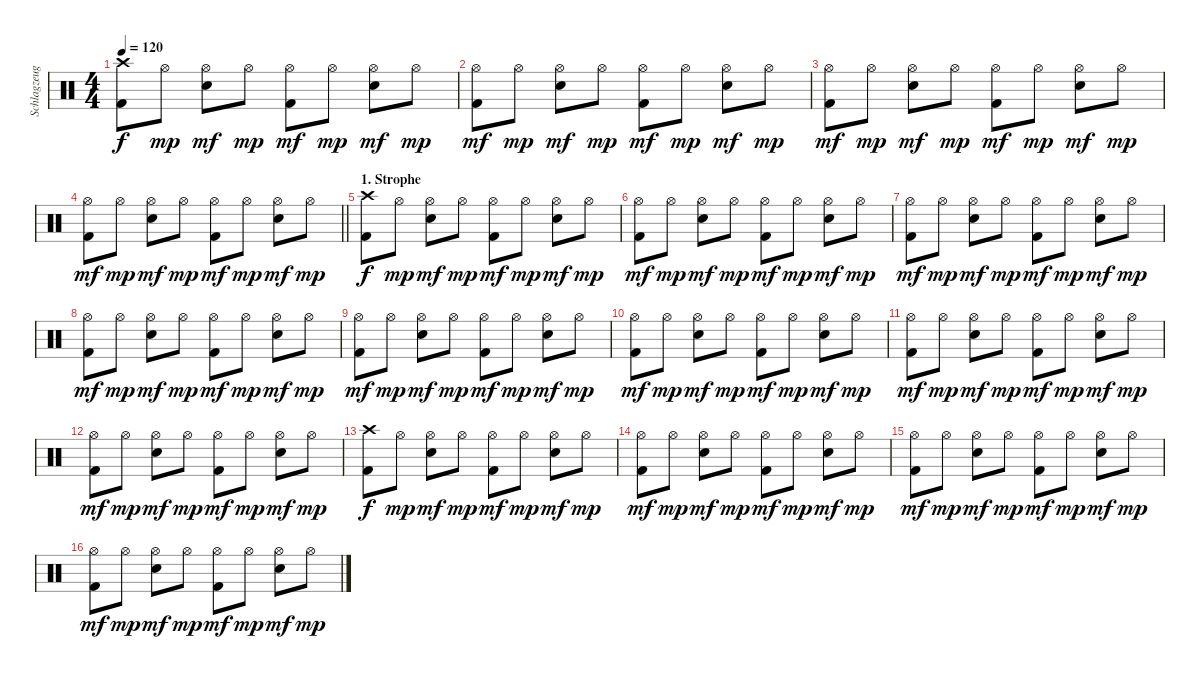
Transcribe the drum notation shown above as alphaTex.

\track ("Schlagzeug" "Schlagzeug") {instrument percussion}
\staff {score}
\articulation defaults
\ts (4 4)
\tempo 120
\clef neutral
\ks c
("Crash high (hit)" "Kick (hit) 2").8{dy f} "Hi-Hat (open)".8{dy mp} ("Hi-Hat (open)" "Electric Snare (hit)").8{dy mf} "Hi-Hat (open)".8{dy mp} ("Hi-Hat (open)" "Kick (hit) 2").8{dy mf} "Hi-Hat (open)".8{dy mp} ("Hi-Hat (open)" "Electric Snare (hit)").8{dy mf} "Hi-Hat (open)".8{dy mp} |
("Hi-Hat (open)" "Kick (hit) 2").8{dy mf} "Hi-Hat (open)".8{dy mp} ("Hi-Hat (open)" "Electric Snare (hit)").8{dy mf} "Hi-Hat (open)".8{dy mp} ("Hi-Hat (open)" "Kick (hit) 2").8{dy mf} "Hi-Hat (open)".8{dy mp} ("Hi-Hat (open)" "Electric Snare (hit)").8{dy mf} "Hi-Hat (open)".8{dy mp} |
("Hi-Hat (open)" "Kick (hit) 2").8{dy mf} "Hi-Hat (open)".8{dy mp} ("Hi-Hat (open)" "Electric Snare (hit)").8{dy mf} "Hi-Hat (open)".8{dy mp} ("Hi-Hat (open)" "Kick (hit) 2").8{dy mf} "Hi-Hat (open)".8{dy mp} ("Hi-Hat (open)" "Electric Snare (hit)").8{dy mf} "Hi-Hat (open)".8{dy mp} |
\barLineRight lightlight
("Hi-Hat (open)" "Kick (hit) 2").8{dy mf} "Hi-Hat (open)".8{dy mp} ("Hi-Hat (open)" "Electric Snare (hit)").8{dy mf} "Hi-Hat (open)".8{dy mp} ("Hi-Hat (open)" "Kick (hit) 2").8{dy mf} "Hi-Hat (open)".8{dy mp} ("Hi-Hat (open)" "Electric Snare (hit)").8{dy mf} "Hi-Hat (open)".8{dy mp} |
\section ("" "1. Strophe")
("Crash high (hit)" "Kick (hit) 2").8{dy f} "Hi-Hat (open)".8{dy mp} ("Hi-Hat (open)" "Electric Snare (hit)").8{dy mf} "Hi-Hat (open)".8{dy mp} ("Hi-Hat (open)" "Kick (hit) 2").8{dy mf} "Hi-Hat (open)".8{dy mp} ("Hi-Hat (open)" "Electric Snare (hit)").8{dy mf} "Hi-Hat (open)".8{dy mp} |
("Hi-Hat (open)" "Kick (hit) 2").8{dy mf} "Hi-Hat (open)".8{dy mp} ("Hi-Hat (open)" "Electric Snare (hit)").8{dy mf} "Hi-Hat (open)".8{dy mp} ("Hi-Hat (open)" "Kick (hit) 2").8{dy mf} "Hi-Hat (open)".8{dy mp} ("Hi-Hat (open)" "Electric Snare (hit)").8{dy mf} "Hi-Hat (open)".8{dy mp} |
("Hi-Hat (open)" "Kick (hit) 2").8{dy mf} "Hi-Hat (open)".8{dy mp} ("Hi-Hat (open)" "Electric Snare (hit)").8{dy mf} "Hi-Hat (open)".8{dy mp} ("Hi-Hat (open)" "Kick (hit) 2").8{dy mf} "Hi-Hat (open)".8{dy mp} ("Hi-Hat (open)" "Electric Snare (hit)").8{dy mf} "Hi-Hat (open)".8{dy mp} |
("Hi-Hat (open)" "Kick (hit) 2").8{dy mf} "Hi-Hat (open)".8{dy mp} ("Hi-Hat (open)" "Electric Snare (hit)").8{dy mf} "Hi-Hat (open)".8{dy mp} ("Hi-Hat (open)" "Kick (hit) 2").8{dy mf} "Hi-Hat (open)".8{dy mp} ("Hi-Hat (open)" "Electric Snare (hit)").8{dy mf} "Hi-Hat (open)".8{dy mp} |
("Hi-Hat (open)" "Kick (hit) 2").8{dy mf} "Hi-Hat (open)".8{dy mp} ("Hi-Hat (open)" "Electric Snare (hit)").8{dy mf} "Hi-Hat (open)".8{dy mp} ("Hi-Hat (open)" "Kick (hit) 2").8{dy mf} "Hi-Hat (open)".8{dy mp} ("Hi-Hat (open)" "Electric Snare (hit)").8{dy mf} "Hi-Hat (open)".8{dy mp} |
("Hi-Hat (open)" "Kick (hit) 2").8{dy mf} "Hi-Hat (open)".8{dy mp} ("Hi-Hat (open)" "Electric Snare (hit)").8{dy mf} "Hi-Hat (open)".8{dy mp} ("Hi-Hat (open)" "Kick (hit) 2").8{dy mf} "Hi-Hat (open)".8{dy mp} ("Hi-Hat (open)" "Electric Snare (hit)").8{dy mf} "Hi-Hat (open)".8{dy mp} |
("Hi-Hat (open)" "Kick (hit) 2").8{dy mf} "Hi-Hat (open)".8{dy mp} ("Hi-Hat (open)" "Electric Snare (hit)").8{dy mf} "Hi-Hat (open)".8{dy mp} ("Hi-Hat (open)" "Kick (hit) 2").8{dy mf} "Hi-Hat (open)".8{dy mp} ("Hi-Hat (open)" "Electric Snare (hit)").8{dy mf} "Hi-Hat (open)".8{dy mp} |
("Hi-Hat (open)" "Kick (hit) 2").8{dy mf} "Hi-Hat (open)".8{dy mp} ("Hi-Hat (open)" "Electric Snare (hit)").8{dy mf} "Hi-Hat (open)".8{dy mp} ("Hi-Hat (open)" "Kick (hit) 2").8{dy mf} "Hi-Hat (open)".8{dy mp} ("Hi-Hat (open)" "Electric Snare (hit)").8{dy mf} "Hi-Hat (open)".8{dy mp} |
("Crash high (hit)" "Kick (hit) 2").8{dy f} "Hi-Hat (open)".8{dy mp} ("Hi-Hat (open)" "Electric Snare (hit)").8{dy mf} "Hi-Hat (open)".8{dy mp} ("Hi-Hat (open)" "Kick (hit) 2").8{dy mf} "Hi-Hat (open)".8{dy mp} ("Hi-Hat (open)" "Electric Snare (hit)").8{dy mf} "Hi-Hat (open)".8{dy mp} |
("Hi-Hat (open)" "Kick (hit) 2").8{dy mf} "Hi-Hat (open)".8{dy mp} ("Hi-Hat (open)" "Electric Snare (hit)").8{dy mf} "Hi-Hat (open)".8{dy mp} ("Hi-Hat (open)" "Kick (hit) 2").8{dy mf} "Hi-Hat (open)".8{dy mp} ("Hi-Hat (open)" "Electric Snare (hit)").8{dy mf} "Hi-Hat (open)".8{dy mp} |
("Hi-Hat (open)" "Kick (hit) 2").8{dy mf} "Hi-Hat (open)".8{dy mp} ("Hi-Hat (open)" "Electric Snare (hit)").8{dy mf} "Hi-Hat (open)".8{dy mp} ("Hi-Hat (open)" "Kick (hit) 2").8{dy mf} "Hi-Hat (open)".8{dy mp} ("Hi-Hat (open)" "Electric Snare (hit)").8{dy mf} "Hi-Hat (open)".8{dy mp} |
("Hi-Hat (open)" "Kick (hit) 2").8{dy mf} "Hi-Hat (open)".8{dy mp} ("Hi-Hat (open)" "Electric Snare (hit)").8{dy mf} "Hi-Hat (open)".8{dy mp} ("Hi-Hat (open)" "Kick (hit) 2").8{dy mf} "Hi-Hat (open)".8{dy mp} ("Hi-Hat (open)" "Electric Snare (hit)").8{dy mf} "Hi-Hat (open)".8{dy mp}
